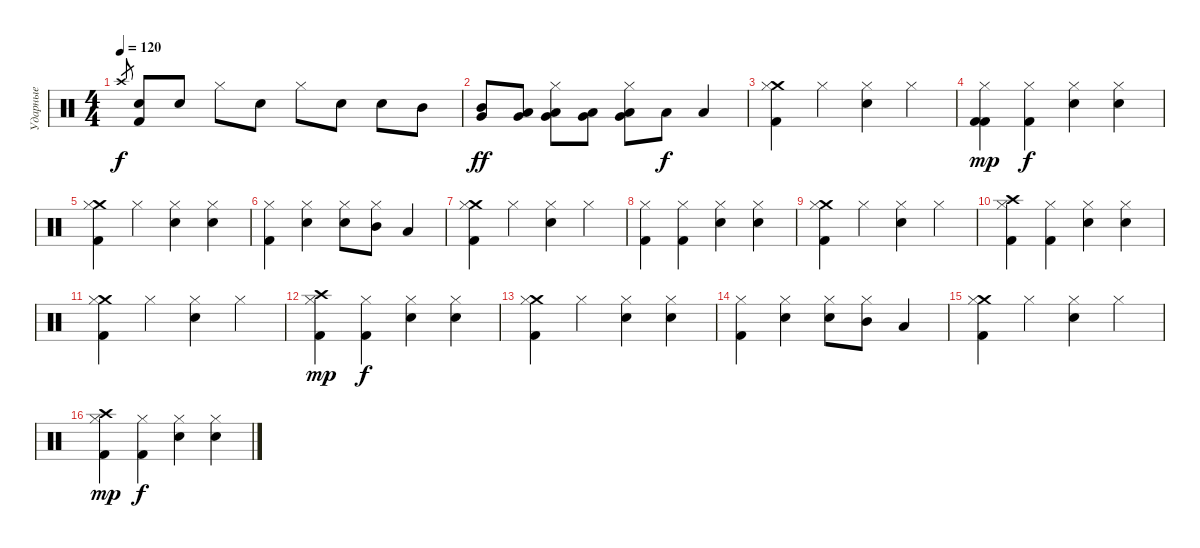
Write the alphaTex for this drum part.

\track ("Ударные" "Ударные") {instrument percussion}
\staff {score}
\articulation defaults
\ts (4 4)
\tempo 120
\clef neutral
\ks c "Crash high (hit)".8{gr dy f}
("Snare (hit) 2" "Kick (hit) 2").8 "Snare (hit) 2".8 "Hi-Hat (closed)".8 "Snare (hit) 2".8 "Hi-Hat (closed)".8 "Snare (hit) 2".8 "Snare (hit) 2".8 "Mid Tom (hit)".8 |
("Mid Tom (hit)" "Very Low Tom (hit)").8{dy ff} ("Low Tom (hit)" "Very Low Tom (hit)").8 ("Hi-Hat (closed)" "Low Tom (hit)" "Very Low Tom (hit)").8 ("Very Low Tom (hit)" "Low Floor Tom (hit)").8 ("Hi-Hat (closed)" "Very Low Tom (hit)" "Low Floor Tom (hit)").8 "Low Floor Tom (hit)".8{dy f} "Low Floor Tom (hit)".4 |
("Crash medium (hit)" "Hi-Hat (closed)" "Kick (hit) 2").4 "Hi-Hat (closed)".4 ("Snare (hit) 2" "Hi-Hat (closed)").4 "Hi-Hat (closed)".4 |
("Kick (hit) 2" "Hi-Hat (closed)" "Kick (hit) 2").4{dy mp} ("Hi-Hat (closed)" "Kick (hit) 2").4{dy f} ("Snare (hit) 2" "Hi-Hat (closed)").4 ("Snare (hit) 2" "Hi-Hat (closed)").4 |
("Crash medium (hit)" "Hi-Hat (closed)" "Kick (hit) 2").4 "Hi-Hat (closed)".4 ("Snare (hit) 2" "Hi-Hat (closed)").4 ("Snare (hit) 2" "Hi-Hat (closed)").4 |
("Hi-Hat (closed)" "Kick (hit) 2").4 ("Snare (hit) 2" "Hi-Hat (closed)").4 ("Snare (hit) 2" "Hi-Hat (closed)").8 ("Mid Tom (hit)" "Hi-Hat (closed)").8 "Low Tom (hit)".4 |
("Crash medium (hit)" "Hi-Hat (closed)" "Kick (hit) 2").4 "Hi-Hat (closed)".4 ("Snare (hit) 2" "Hi-Hat (closed)").4 "Hi-Hat (closed)".4 |
("Hi-Hat (closed)" "Kick (hit) 2").4 ("Hi-Hat (closed)" "Kick (hit) 2").4 ("Snare (hit) 2" "Hi-Hat (closed)").4 ("Snare (hit) 2" "Hi-Hat (closed)").4 |
("Crash medium (hit)" "Hi-Hat (closed)" "Kick (hit) 2").4 "Hi-Hat (closed)".4 ("Snare (hit) 2" "Hi-Hat (closed)").4 "Hi-Hat (closed)".4 |
("Crash high (hit)" "Hi-Hat (closed)" "Kick (hit) 2").4 ("Hi-Hat (closed)" "Kick (hit) 2").4 ("Snare (hit) 2" "Hi-Hat (closed)").4 ("Snare (hit) 2" "Hi-Hat (closed)").4 |
("Crash medium (hit)" "Hi-Hat (closed)" "Kick (hit) 2").4 "Hi-Hat (closed)".4 ("Snare (hit) 2" "Hi-Hat (closed)").4 "Hi-Hat (closed)".4 |
("Crash high (hit)" "Hi-Hat (closed)" "Kick (hit) 2").4{dy mp} ("Hi-Hat (closed)" "Kick (hit) 2").4{dy f} ("Snare (hit) 2" "Hi-Hat (closed)").4 ("Snare (hit) 2" "Hi-Hat (closed)").4 |
("Crash medium (hit)" "Hi-Hat (closed)" "Kick (hit) 2").4 "Hi-Hat (closed)".4 ("Snare (hit) 2" "Hi-Hat (closed)").4 ("Snare (hit) 2" "Hi-Hat (closed)").4 |
("Hi-Hat (closed)" "Kick (hit) 2").4 ("Snare (hit) 2" "Hi-Hat (closed)").4 ("Snare (hit) 2" "Hi-Hat (closed)").8 ("Mid Tom (hit)" "Hi-Hat (closed)").8 "Low Tom (hit)".4 |
("Crash medium (hit)" "Hi-Hat (closed)" "Kick (hit) 2").4 "Hi-Hat (closed)".4 ("Snare (hit) 2" "Hi-Hat (closed)").4 "Hi-Hat (closed)".4 |
("Crash high (hit)" "Hi-Hat (closed)" "Kick (hit) 2").4{dy mp} ("Hi-Hat (closed)" "Kick (hit) 2").4{dy f} ("Snare (hit) 2" "Hi-Hat (closed)").4 ("Snare (hit) 2" "Hi-Hat (closed)").4
